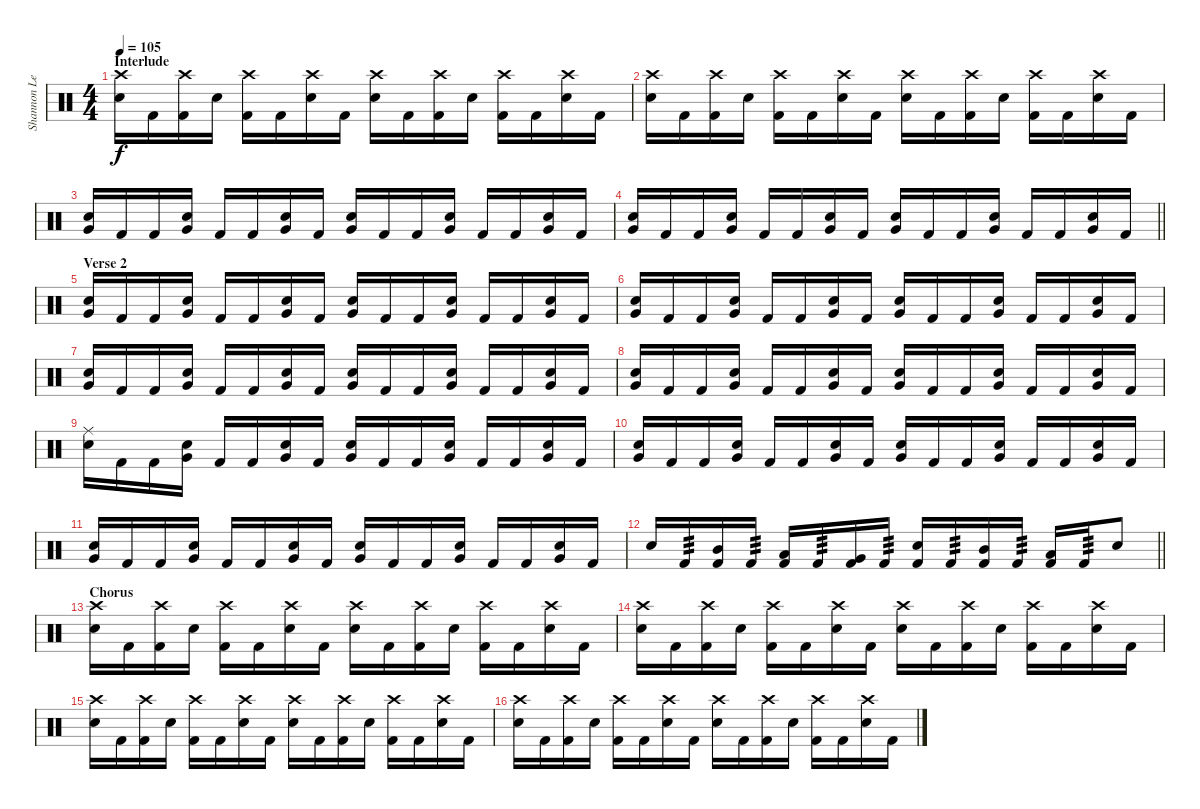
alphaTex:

\track ("Shannon Leto - Drums" "Shannon Le") {instrument percussion}
\staff {score}
\articulation defaults
\ts (4 4)
\section ("" "Interlude")
\tempo 105
\clef neutral
\ks c
("Crash high (hit)" "Electric Snare (hit)").16{dy f} "Kick (hit) 2".16 ("Crash high (hit)" "Kick (hit) 2").16 "Electric Snare (hit)".16 ("Crash high (hit)" "Kick (hit) 2").16 "Kick (hit) 2".16 ("Crash high (hit)" "Electric Snare (hit)").16 "Kick (hit) 2".16 ("Crash high (hit)" "Electric Snare (hit)").16 "Kick (hit) 2".16 ("Crash high (hit)" "Kick (hit) 2").16 "Electric Snare (hit)".16 ("Crash high (hit)" "Kick (hit) 2").16 "Kick (hit) 2".16 ("Crash high (hit)" "Electric Snare (hit)").16 "Kick (hit) 2".16 |
("Crash high (hit)" "Electric Snare (hit)").16 "Kick (hit) 2".16 ("Crash high (hit)" "Kick (hit) 2").16 "Electric Snare (hit)".16 ("Crash high (hit)" "Kick (hit) 2").16 "Kick (hit) 2".16 ("Crash high (hit)" "Electric Snare (hit)").16 "Kick (hit) 2".16 ("Crash high (hit)" "Electric Snare (hit)").16 "Kick (hit) 2".16 ("Crash high (hit)" "Kick (hit) 2").16 "Electric Snare (hit)".16 ("Crash high (hit)" "Kick (hit) 2").16 "Kick (hit) 2".16 ("Crash high (hit)" "Electric Snare (hit)").16 "Kick (hit) 2".16 |
("Electric Snare (hit)" "Very Low Tom (hit)").16 "Kick (hit) 2".16 "Kick (hit) 2".16 ("Electric Snare (hit)" "Very Low Tom (hit)").16 "Kick (hit) 2".16 "Kick (hit) 2".16 ("Electric Snare (hit)" "Very Low Tom (hit)").16 "Kick (hit) 2".16 ("Electric Snare (hit)" "Very Low Tom (hit)").16 "Kick (hit) 2".16 "Kick (hit) 2".16 ("Electric Snare (hit)" "Very Low Tom (hit)").16 "Kick (hit) 2".16 "Kick (hit) 2".16 ("Electric Snare (hit)" "Very Low Tom (hit)").16 "Kick (hit) 2".16 |
\barLineRight lightlight
("Electric Snare (hit)" "Very Low Tom (hit)").16 "Kick (hit) 2".16 "Kick (hit) 2".16 ("Electric Snare (hit)" "Very Low Tom (hit)").16 "Kick (hit) 2".16 "Kick (hit) 2".16 ("Electric Snare (hit)" "Very Low Tom (hit)").16 "Kick (hit) 2".16 ("Electric Snare (hit)" "Very Low Tom (hit)").16 "Kick (hit) 2".16 "Kick (hit) 2".16 ("Electric Snare (hit)" "Very Low Tom (hit)").16 "Kick (hit) 2".16 "Kick (hit) 2".16 ("Electric Snare (hit)" "Very Low Tom (hit)").16 "Kick (hit) 2".16 |
\section ("" "Verse 2")
("Electric Snare (hit)" "Very Low Tom (hit)").16 "Kick (hit) 2".16 "Kick (hit) 2".16 ("Electric Snare (hit)" "Very Low Tom (hit)").16 "Kick (hit) 2".16 "Kick (hit) 2".16 ("Electric Snare (hit)" "Very Low Tom (hit)").16 "Kick (hit) 2".16 ("Electric Snare (hit)" "Very Low Tom (hit)").16 "Kick (hit) 2".16 "Kick (hit) 2".16 ("Electric Snare (hit)" "Very Low Tom (hit)").16 "Kick (hit) 2".16 "Kick (hit) 2".16 ("Electric Snare (hit)" "Very Low Tom (hit)").16 "Kick (hit) 2".16 |
("Electric Snare (hit)" "Very Low Tom (hit)").16 "Kick (hit) 2".16 "Kick (hit) 2".16 ("Electric Snare (hit)" "Very Low Tom (hit)").16 "Kick (hit) 2".16 "Kick (hit) 2".16 ("Electric Snare (hit)" "Very Low Tom (hit)").16 "Kick (hit) 2".16 ("Electric Snare (hit)" "Very Low Tom (hit)").16 "Kick (hit) 2".16 "Kick (hit) 2".16 ("Electric Snare (hit)" "Very Low Tom (hit)").16 "Kick (hit) 2".16 "Kick (hit) 2".16 ("Electric Snare (hit)" "Very Low Tom (hit)").16 "Kick (hit) 2".16 |
("Electric Snare (hit)" "Very Low Tom (hit)").16 "Kick (hit) 2".16 "Kick (hit) 2".16 ("Electric Snare (hit)" "Very Low Tom (hit)").16 "Kick (hit) 2".16 "Kick (hit) 2".16 ("Electric Snare (hit)" "Very Low Tom (hit)").16 "Kick (hit) 2".16 ("Electric Snare (hit)" "Very Low Tom (hit)").16 "Kick (hit) 2".16 "Kick (hit) 2".16 ("Electric Snare (hit)" "Very Low Tom (hit)").16 "Kick (hit) 2".16 "Kick (hit) 2".16 ("Electric Snare (hit)" "Very Low Tom (hit)").16 "Kick (hit) 2".16 |
("Electric Snare (hit)" "Very Low Tom (hit)").16 "Kick (hit) 2".16 "Kick (hit) 2".16 ("Electric Snare (hit)" "Very Low Tom (hit)").16 "Kick (hit) 2".16 "Kick (hit) 2".16 ("Electric Snare (hit)" "Very Low Tom (hit)").16 "Kick (hit) 2".16 ("Electric Snare (hit)" "Very Low Tom (hit)").16 "Kick (hit) 2".16 "Kick (hit) 2".16 ("Electric Snare (hit)" "Very Low Tom (hit)").16 "Kick (hit) 2".16 "Kick (hit) 2".16 ("Electric Snare (hit)" "Very Low Tom (hit)").16 "Kick (hit) 2".16 |
("Ride (middle)" "Electric Snare (hit)").16 "Kick (hit) 2".16 "Kick (hit) 2".16 ("Electric Snare (hit)" "Very Low Tom (hit)").16 "Kick (hit) 2".16 "Kick (hit) 2".16 ("Electric Snare (hit)" "Very Low Tom (hit)").16 "Kick (hit) 2".16 ("Electric Snare (hit)" "Very Low Tom (hit)").16 "Kick (hit) 2".16 "Kick (hit) 2".16 ("Electric Snare (hit)" "Very Low Tom (hit)").16 "Kick (hit) 2".16 "Kick (hit) 2".16 ("Electric Snare (hit)" "Very Low Tom (hit)").16 "Kick (hit) 2".16 |
("Electric Snare (hit)" "Very Low Tom (hit)").16 "Kick (hit) 2".16 "Kick (hit) 2".16 ("Electric Snare (hit)" "Very Low Tom (hit)").16 "Kick (hit) 2".16 "Kick (hit) 2".16 ("Electric Snare (hit)" "Very Low Tom (hit)").16 "Kick (hit) 2".16 ("Electric Snare (hit)" "Very Low Tom (hit)").16 "Kick (hit) 2".16 "Kick (hit) 2".16 ("Electric Snare (hit)" "Very Low Tom (hit)").16 "Kick (hit) 2".16 "Kick (hit) 2".16 ("Electric Snare (hit)" "Very Low Tom (hit)").16 "Kick (hit) 2".16 |
("Electric Snare (hit)" "Very Low Tom (hit)").16 "Kick (hit) 2".16 "Kick (hit) 2".16 ("Electric Snare (hit)" "Very Low Tom (hit)").16 "Kick (hit) 2".16 "Kick (hit) 2".16 ("Electric Snare (hit)" "Very Low Tom (hit)").16 "Kick (hit) 2".16 ("Electric Snare (hit)" "Very Low Tom (hit)").16 "Kick (hit) 2".16 "Kick (hit) 2".16 ("Electric Snare (hit)" "Very Low Tom (hit)").16 "Kick (hit) 2".16 "Kick (hit) 2".16 ("Electric Snare (hit)" "Very Low Tom (hit)").16 "Kick (hit) 2".16 |
\barLineRight lightlight "Electric Snare (hit)".16 "Kick (hit) 2".16{tp 3}
("Mid Tom (hit)" "Kick (hit) 2").16 "Kick (hit) 2".16{tp 3} ("Low Tom (hit)" "Kick (hit) 2").16 "Kick (hit) 2".16{tp 3} ("Very Low Tom (hit)" "Kick (hit) 2").16 "Kick (hit) 2".16{tp 3} ("Electric Snare (hit)" "Kick (hit) 2").16 "Kick (hit) 2".16{tp 3} ("Mid Tom (hit)" "Kick (hit) 2").16 "Kick (hit) 2".16{tp 3} ("Low Tom (hit)" "Kick (hit) 2").16 "Kick (hit) 2".16{tp 3} "Electric Snare (hit)".8 |
\section ("" "Chorus")
("Crash high (hit)" "Electric Snare (hit)").16 "Kick (hit) 2".16 ("Crash high (hit)" "Kick (hit) 2").16 "Electric Snare (hit)".16 ("Crash high (hit)" "Kick (hit) 2").16 "Kick (hit) 2".16 ("Crash high (hit)" "Electric Snare (hit)").16 "Kick (hit) 2".16 ("Crash high (hit)" "Electric Snare (hit)").16 "Kick (hit) 2".16 ("Crash high (hit)" "Kick (hit) 2").16 "Electric Snare (hit)".16 ("Crash high (hit)" "Kick (hit) 2").16 "Kick (hit) 2".16 ("Crash high (hit)" "Electric Snare (hit)").16 "Kick (hit) 2".16 |
("Crash high (hit)" "Electric Snare (hit)").16 "Kick (hit) 2".16 ("Crash high (hit)" "Kick (hit) 2").16 "Electric Snare (hit)".16 ("Crash high (hit)" "Kick (hit) 2").16 "Kick (hit) 2".16 ("Crash high (hit)" "Electric Snare (hit)").16 "Kick (hit) 2".16 ("Crash high (hit)" "Electric Snare (hit)").16 "Kick (hit) 2".16 ("Crash high (hit)" "Kick (hit) 2").16 "Electric Snare (hit)".16 ("Crash high (hit)" "Kick (hit) 2").16 "Kick (hit) 2".16 ("Crash high (hit)" "Electric Snare (hit)").16 "Kick (hit) 2".16 |
("Crash high (hit)" "Electric Snare (hit)").16 "Kick (hit) 2".16 ("Crash high (hit)" "Kick (hit) 2").16 "Electric Snare (hit)".16 ("Crash high (hit)" "Kick (hit) 2").16 "Kick (hit) 2".16 ("Crash high (hit)" "Electric Snare (hit)").16 "Kick (hit) 2".16 ("Crash high (hit)" "Electric Snare (hit)").16 "Kick (hit) 2".16 ("Crash high (hit)" "Kick (hit) 2").16 "Electric Snare (hit)".16 ("Crash high (hit)" "Kick (hit) 2").16 "Kick (hit) 2".16 ("Crash high (hit)" "Electric Snare (hit)").16 "Kick (hit) 2".16 |
("Crash high (hit)" "Electric Snare (hit)").16 "Kick (hit) 2".16 ("Crash high (hit)" "Kick (hit) 2").16 "Electric Snare (hit)".16 ("Crash high (hit)" "Kick (hit) 2").16 "Kick (hit) 2".16 ("Crash high (hit)" "Electric Snare (hit)").16 "Kick (hit) 2".16 ("Crash high (hit)" "Electric Snare (hit)").16 "Kick (hit) 2".16 ("Crash high (hit)" "Kick (hit) 2").16 "Electric Snare (hit)".16 ("Crash high (hit)" "Kick (hit) 2").16 "Kick (hit) 2".16 ("Crash high (hit)" "Electric Snare (hit)").16 "Kick (hit) 2".16
